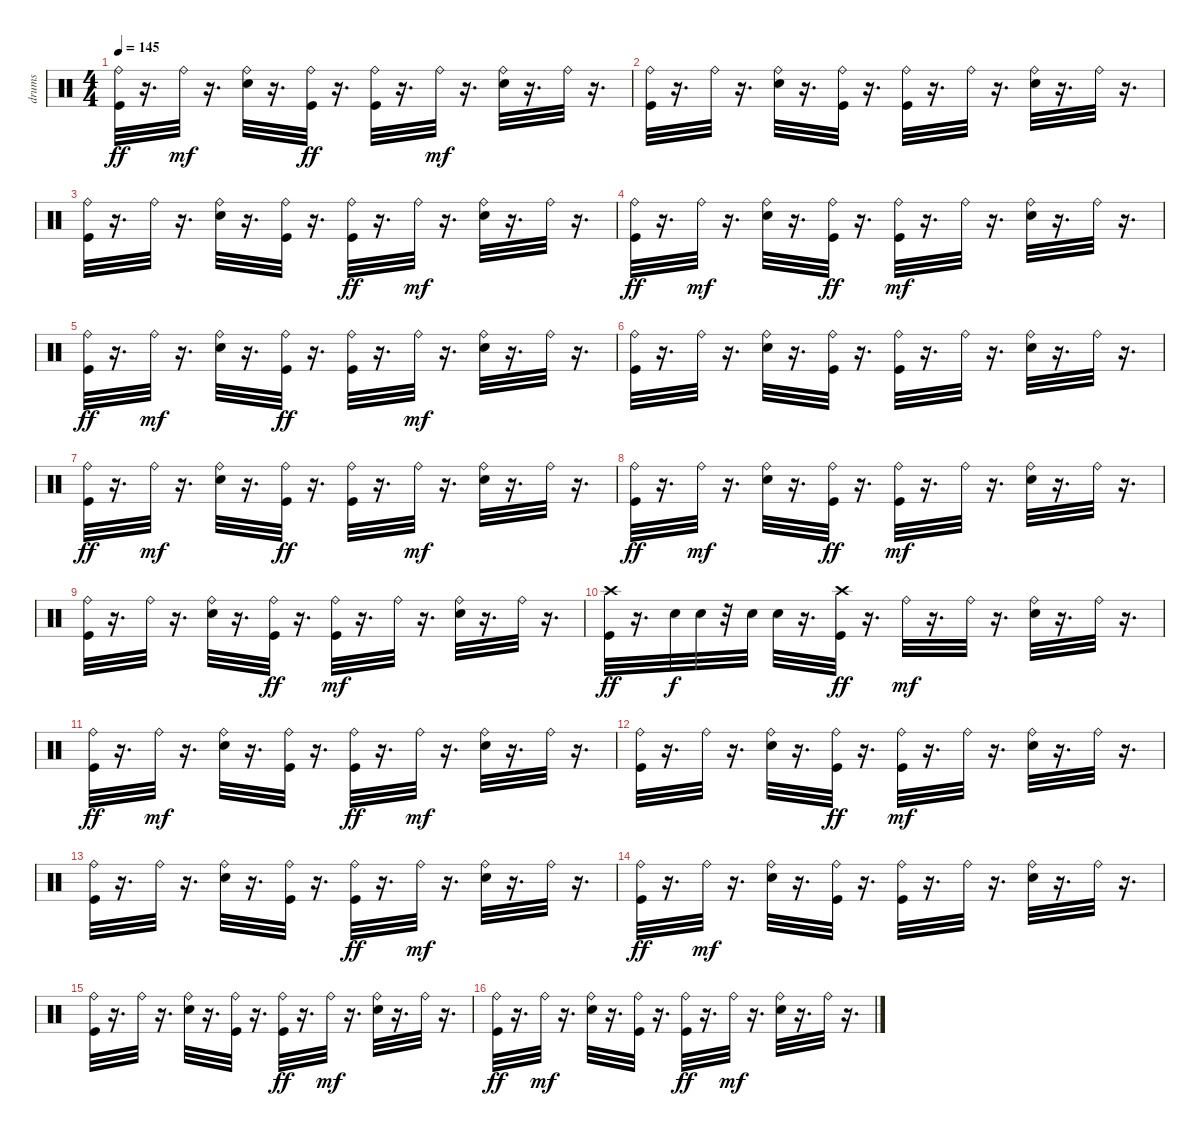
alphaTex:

\track ("drums" "drums") {instrument percussion}
\staff {score}
\articulation defaults
\ts (4 4)
\tempo 145
\clef neutral
\ks c
("Ride (bell)" "Kick (hit)").32{dy ff} r.16{d} "Ride (bell)".32{dy mf} r.16{d} ("Snare (hit) 2" "Ride (bell)").32 r.16{d} ("Ride (bell)" "Kick (hit)").32{dy ff} r.16{d} ("Ride (bell)" "Kick (hit)").32 r.16{d} "Ride (bell)".32{dy mf} r.16{d} ("Snare (hit) 2" "Ride (bell)").32 r.16{d} "Ride (bell)".32 r.16{d} |
("Kick (hit)" "Ride (bell)").32 r.16{d} "Ride (bell)".32 r.16{d} ("Snare (hit) 2" "Ride (bell)").32 r.16{d} ("Kick (hit)" "Ride (bell)").32 r.16{d} ("Kick (hit)" "Ride (bell)").32 r.16{d} "Ride (bell)".32 r.16{d} ("Ride (bell)" "Snare (hit) 2").32 r.16{d} "Ride (bell)".32 r.16{d} |
("Kick (hit)" "Ride (bell)").32 r.16{d} "Ride (bell)".32 r.16{d} ("Ride (bell)" "Snare (hit) 2").32 r.16{d} ("Kick (hit)" "Ride (bell)").32 r.16{d} ("Ride (bell)" "Kick (hit)").32{dy ff} r.16{d} "Ride (bell)".32{dy mf} r.16{d} ("Ride (bell)" "Snare (hit) 2").32 r.16{d} "Ride (bell)".32 r.16{d} |
("Ride (bell)" "Kick (hit)").32{dy ff} r.16{d} "Ride (bell)".32{dy mf} r.16{d} ("Ride (bell)" "Snare (hit) 2").32 r.16{d} ("Ride (bell)" "Kick (hit)").32{dy ff} r.16{d} ("Kick (hit)" "Ride (bell)").32{dy mf} r.16{d} "Ride (bell)".32 r.16{d} ("Snare (hit) 2" "Ride (bell)").32 r.16{d} "Ride (bell)".32 r.16{d} |
("Ride (bell)" "Kick (hit)").32{dy ff} r.16{d} "Ride (bell)".32{dy mf} r.16{d} ("Snare (hit) 2" "Ride (bell)").32 r.16{d} ("Ride (bell)" "Kick (hit)").32{dy ff} r.16{d} ("Ride (bell)" "Kick (hit)").32 r.16{d} "Ride (bell)".32{dy mf} r.16{d} ("Ride (bell)" "Snare (hit) 2").32 r.16{d} "Ride (bell)".32 r.16{d} |
("Kick (hit)" "Ride (bell)").32 r.16{d} "Ride (bell)".32 r.16{d} ("Ride (bell)" "Snare (hit) 2").32 r.16{d} ("Kick (hit)" "Ride (bell)").32 r.16{d} ("Kick (hit)" "Ride (bell)").32 r.16{d} "Ride (bell)".32 r.16{d} ("Ride (bell)" "Snare (hit) 2").32 r.16{d} "Ride (bell)".32 r.16{d} |
("Ride (bell)" "Kick (hit)").32{dy ff} r.16{d} "Ride (bell)".32{dy mf} r.16{d} ("Ride (bell)" "Snare (hit) 2").32 r.16{d} ("Ride (bell)" "Kick (hit)").32{dy ff} r.16{d} ("Ride (bell)" "Kick (hit)").32 r.16{d} "Ride (bell)".32{dy mf} r.16{d} ("Snare (hit) 2" "Ride (bell)").32 r.16{d} "Ride (bell)".32 r.16{d} |
("Ride (bell)" "Kick (hit)").32{dy ff} r.16{d} "Ride (bell)".32{dy mf} r.16{d} ("Snare (hit) 2" "Ride (bell)").32 r.16{d} ("Ride (bell)" "Kick (hit)").32{dy ff} r.16{d} ("Kick (hit)" "Ride (bell)").32{dy mf} r.16{d} "Ride (bell)".32 r.16{d} ("Snare (hit) 2" "Ride (bell)").32 r.16{d} "Ride (bell)".32 r.16{d} |
("Kick (hit)" "Ride (bell)").32 r.16{d} "Ride (bell)".32 r.16{d} ("Snare (hit) 2" "Ride (bell)").32 r.16{d} ("Ride (bell)" "Kick (hit)").32{dy ff} r.16{d} ("Kick (hit)" "Ride (bell)").32{dy mf} r.16{d} "Ride (bell)".32 r.16{d} ("Snare (hit) 2" "Ride (bell)").32 r.16{d} "Ride (bell)".32 r.16{d} |
("Crash high (hit)" "Kick (hit)").32{dy ff} r.16{d} "Snare (hit) 2".32{dy f} "Snare (hit) 2".32 r.32 "Snare (hit) 2".32 "Snare (hit) 2".32 r.16{d} ("Crash high (hit)" "Kick (hit)").32{dy ff} r.16{d} "Ride (bell)".32{dy mf} r.16{d} "Ride (bell)".32 r.16{d} ("Ride (bell)" "Snare (hit) 2").32 r.16{d} "Ride (bell)".32 r.16{d} |
("Ride (bell)" "Kick (hit)").32{dy ff} r.16{d} "Ride (bell)".32{dy mf} r.16{d} ("Snare (hit) 2" "Ride (bell)").32 r.16{d} ("Kick (hit)" "Ride (bell)").32 r.16{d} ("Ride (bell)" "Kick (hit)").32{dy ff} r.16{d} "Ride (bell)".32{dy mf} r.16{d} ("Ride (bell)" "Snare (hit) 2").32 r.16{d} "Ride (bell)".32 r.16{d} |
("Kick (hit)" "Ride (bell)").32 r.16{d} "Ride (bell)".32 r.16{d} ("Snare (hit) 2" "Ride (bell)").32 r.16{d} ("Ride (bell)" "Kick (hit)").32{dy ff} r.16{d} ("Kick (hit)" "Ride (bell)").32{dy mf} r.16{d} "Ride (bell)".32 r.16{d} ("Snare (hit) 2" "Ride (bell)").32 r.16{d} "Ride (bell)".32 r.16{d} |
("Kick (hit)" "Ride (bell)").32 r.16{d} "Ride (bell)".32 r.16{d} ("Ride (bell)" "Snare (hit) 2").32 r.16{d} ("Kick (hit)" "Ride (bell)").32 r.16{d} ("Ride (bell)" "Kick (hit)").32{dy ff} r.16{d} "Ride (bell)".32{dy mf} r.16{d} ("Snare (hit) 2" "Ride (bell)").32 r.16{d} "Ride (bell)".32 r.16{d} |
("Ride (bell)" "Kick (hit)").32{dy ff} r.16{d} "Ride (bell)".32{dy mf} r.16{d} ("Ride (bell)" "Snare (hit) 2").32 r.16{d} ("Kick (hit)" "Ride (bell)").32 r.16{d} ("Kick (hit)" "Ride (bell)").32 r.16{d} "Ride (bell)".32 r.16{d} ("Ride (bell)" "Snare (hit) 2").32 r.16{d} "Ride (bell)".32 r.16{d} |
("Kick (hit)" "Ride (bell)").32 r.16{d} "Ride (bell)".32 r.16{d} ("Snare (hit) 2" "Ride (bell)").32 r.16{d} ("Kick (hit)" "Ride (bell)").32 r.16{d} ("Ride (bell)" "Kick (hit)").32{dy ff} r.16{d} "Ride (bell)".32{dy mf} r.16{d} ("Ride (bell)" "Snare (hit) 2").32 r.16{d} "Ride (bell)".32 r.16{d} |
("Ride (bell)" "Kick (hit)").32{dy ff} r.16{d} "Ride (bell)".32{dy mf} r.16{d} ("Ride (bell)" "Snare (hit) 2").32 r.16{d} ("Kick (hit)" "Ride (bell)").32 r.16{d} ("Ride (bell)" "Kick (hit)").32{dy ff} r.16{d} "Ride (bell)".32{dy mf} r.16{d} ("Snare (hit) 2" "Ride (bell)").32 r.16{d} "Ride (bell)".32 r.16{d}
